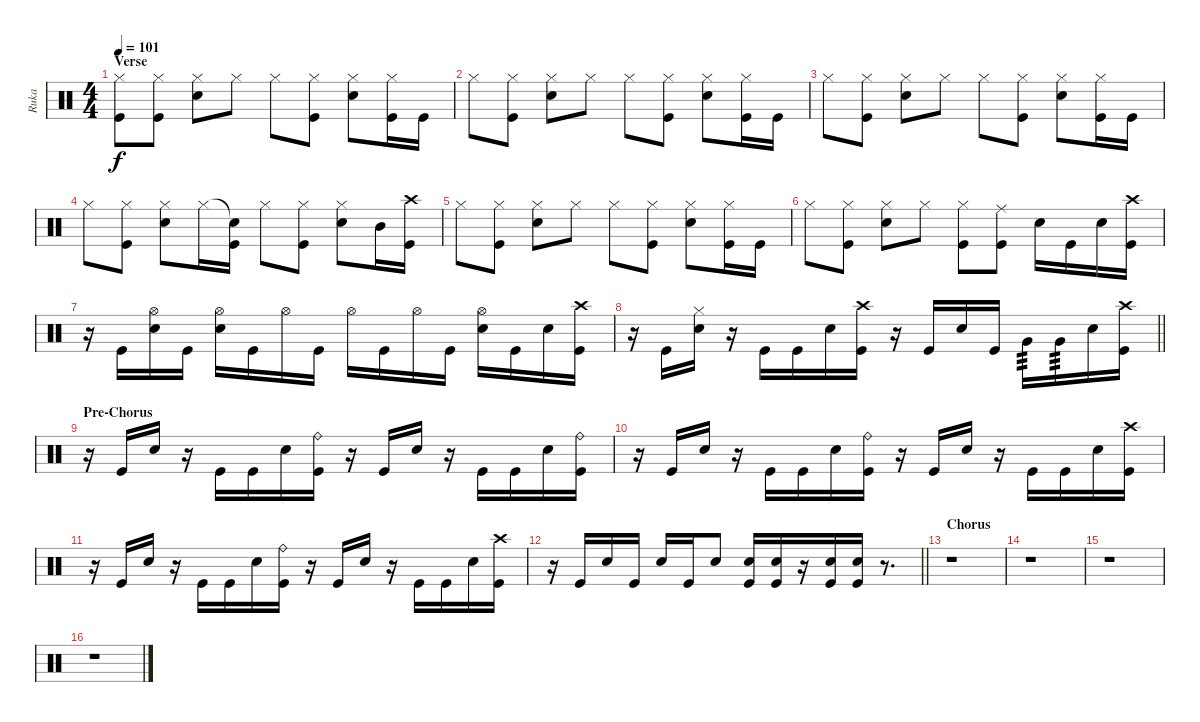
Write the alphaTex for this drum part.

\track ("Ruka" "Ruka") {instrument percussion}
\staff {score}
\articulation defaults
\ts (4 4)
\section ("" "Verse")
\tempo 101
\clef neutral
\ks c
("Hi-Hat (closed)" "Kick (hit)").8{dy f} ("Hi-Hat (closed)" "Kick (hit)").8 ("Hi-Hat (closed)" "Snare (hit) 2").8 "Hi-Hat (closed)".8 "Hi-Hat (closed)".8 ("Hi-Hat (closed)" "Kick (hit)").8 ("Hi-Hat (closed)" "Snare (hit) 2").8 ("Hi-Hat (closed)" "Kick (hit)").16 "Kick (hit)".16 |
"Hi-Hat (closed)".8 ("Hi-Hat (closed)" "Kick (hit)").8 ("Hi-Hat (closed)" "Snare (hit) 2").8 "Hi-Hat (closed)".8 "Hi-Hat (closed)".8 ("Hi-Hat (closed)" "Kick (hit)").8 ("Hi-Hat (closed)" "Snare (hit) 2").8 ("Hi-Hat (closed)" "Kick (hit)").16 "Kick (hit)".16 |
"Hi-Hat (closed)".8 ("Hi-Hat (closed)" "Kick (hit)").8 ("Hi-Hat (closed)" "Snare (hit) 2").8 "Hi-Hat (closed)".8 "Hi-Hat (closed)".8 ("Hi-Hat (closed)" "Kick (hit)").8 ("Hi-Hat (closed)" "Snare (hit) 2").8 ("Hi-Hat (closed)" "Kick (hit)").16 "Kick (hit)".16 |
"Hi-Hat (closed)".8 ("Hi-Hat (closed)" "Kick (hit)").8 ("Hi-Hat (closed)" "Snare (hit) 2").8 "Hi-Hat (closed)".16 ("Snare (hit)"{t} "Kick (hit)").16 "Hi-Hat (closed)".8 ("Hi-Hat (closed)" "Kick (hit)").8 ("Hi-Hat (closed)" "Snare (hit) 2").8 "Mid Tom (hit)".16 ("Crash high (hit)" "Kick (hit)").16 |
"Hi-Hat (closed)".8 ("Hi-Hat (closed)" "Kick (hit)").8 ("Hi-Hat (closed)" "Snare (hit) 2").8 "Hi-Hat (closed)".8 "Hi-Hat (closed)".8 ("Hi-Hat (closed)" "Kick (hit)").8 ("Hi-Hat (closed)" "Snare (hit) 2").8 ("Hi-Hat (closed)" "Kick (hit)").16 "Kick (hit)".16 |
"Hi-Hat (closed)".8 ("Hi-Hat (closed)" "Kick (hit)").8 ("Hi-Hat (closed)" "Snare (hit) 2").8 "Hi-Hat (closed)".8 ("Hi-Hat (closed)" "Kick (hit)").8 ("Ride (middle)" "Kick (hit)").8 "Snare (hit) 2".16 "Kick (hit)".16 "Snare (hit) 2".16 ("Crash high (hit)" "Kick (hit)").16 |
r.16 "Kick (hit)".16 ("Hi-Hat (open)" "Snare (hit) 2").16 "Kick (hit)".16 ("Hi-Hat (open)" "Snare (hit) 2").16 "Kick (hit)".16 "Hi-Hat (open)".16 "Kick (hit)".16 "Hi-Hat (open)".16 "Kick (hit)".16 "Hi-Hat (open)".16 "Kick (hit)".16 ("Hi-Hat (open)" "Snare (hit) 2").16 "Kick (hit)".16 "Snare (hit) 2".16 ("Crash high (hit)" "Kick (hit)").16 |
\barLineRight lightlight
r.16 "Kick (hit)".16 ("Hi-Hat (closed)" "Snare (hit) 2").16 r.16 "Kick (hit)".16 "Kick (hit)".16 "Snare (hit) 2".16 ("Crash high (hit)" "Kick (hit)").16 r.16 "Kick (hit)".16 "Snare (hit) 2".16 "Kick (hit)".16 "Very Low Tom (hit)".16{tp 3} "Very Low Tom (hit)".16{tp 3} "Snare (hit) 2".16 ("Crash high (hit)" "Kick (hit)").16 |
\section ("" "Pre-Chorus")
r.16 "Kick (hit)".16 "Snare (hit) 2".16 r.16 "Kick (hit)".16 "Kick (hit)".16 "Snare (hit) 2".16 ("Ride (bell)" "Kick (hit)").16 r.16 "Kick (hit)".16 "Snare (hit) 2".16 r.16 "Kick (hit)".16 "Kick (hit)".16 "Snare (hit) 2".16 ("Ride (bell)" "Kick (hit)").16 |
r.16 "Kick (hit)".16 "Snare (hit) 2".16 r.16 "Kick (hit)".16 "Kick (hit)".16 "Snare (hit) 2".16 ("Ride (bell)" "Kick (hit)").16 r.16 "Kick (hit)".16 "Snare (hit) 2".16 r.16 "Kick (hit)".16 "Kick (hit)".16 "Snare (hit) 2".16 ("Crash high (hit)" "Kick (hit)").16 |
r.16 "Kick (hit)".16 "Snare (hit) 2".16 r.16 "Kick (hit)".16 "Kick (hit)".16 "Snare (hit) 2".16 ("Ride (bell)" "Kick (hit)").16 r.16 "Kick (hit)".16 "Snare (hit) 2".16 r.16 "Kick (hit)".16 "Kick (hit)".16 "Snare (hit) 2".16 ("Crash high (hit)" "Kick (hit)").16 |
\barLineRight lightlight
r.16 "Kick (hit)".16 "Snare (hit) 2".16 "Kick (hit)".16 "Snare (hit) 2".16 "Kick (hit)".16 "Snare (hit) 2".8 ("Snare (hit) 2" "Kick (hit)").16 ("Snare (hit) 2" "Kick (hit)").16 r.16 ("Snare (hit) 2" "Kick (hit)").16{beam merge} ("Snare (hit) 2" "Kick (hit)").16 r.8{d} |
\section ("" "Chorus ")
r.1 |
r.1 |
r.1 |
r.1
